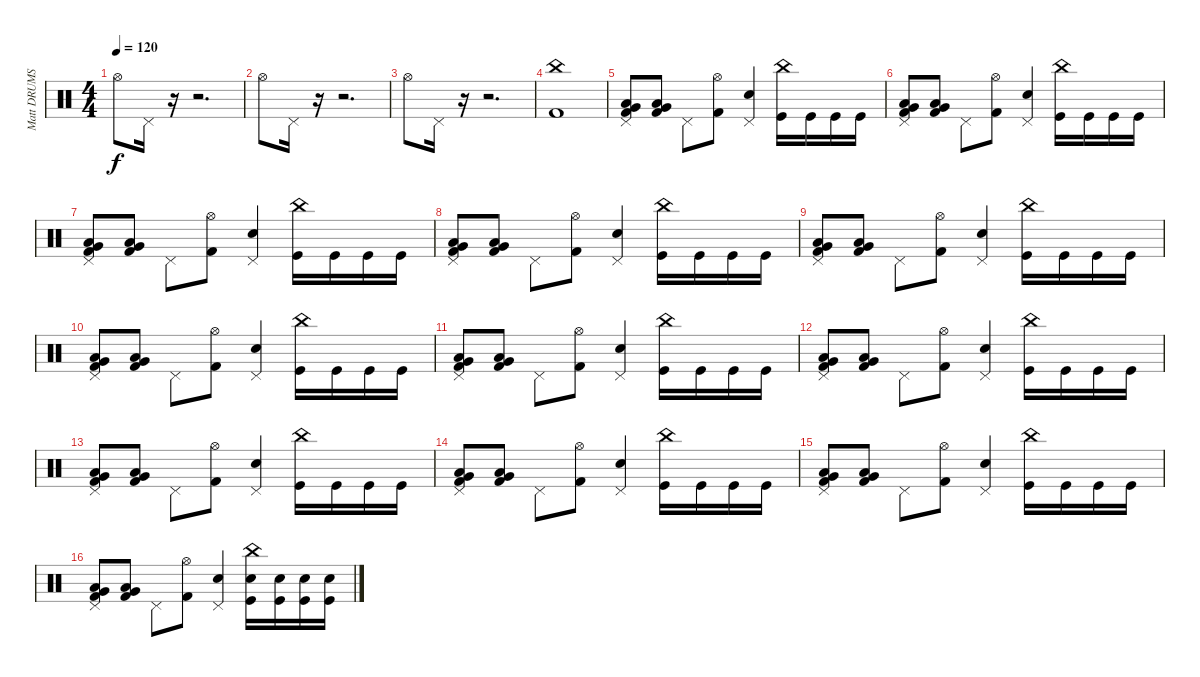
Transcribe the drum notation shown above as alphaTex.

\track ("Matt DRUMS" "Matt DRUMS") {instrument percussion}
\staff {score}
\articulation defaults
\ts (4 4)
\tempo 120
\clef neutral
\ks c "Hi-Hat (open)".8{dy f} "Pedal Hi-Hat (hit)".16
r.16 r.2{d} |
"Hi-Hat (open)".8 "Pedal Hi-Hat (hit)".16 r.16 r.2{d} |
"Hi-Hat (open)".8 "Pedal Hi-Hat (hit)".16 r.16 r.2{d} |
("China (hit)" "Kick (hit) 2").1 |
("Pedal Hi-Hat (hit)" "Low Tom (hit)" "Very Low Tom (hit)" "Kick (hit) 2").8 ("Low Tom (hit)" "Very Low Tom (hit)" "Kick (hit) 2").8 "Pedal Hi-Hat (hit)".8 ("Hi-Hat (open)" "Kick (hit) 2").8 ("Pedal Hi-Hat (hit)" "Snare (hit) 2").4 ("China (hit)" "Kick (hit)").16 "Kick (hit)".16 "Kick (hit)".16 "Kick (hit)".16 |
("Pedal Hi-Hat (hit)" "Low Tom (hit)" "Very Low Tom (hit)" "Kick (hit) 2").8 ("Low Tom (hit)" "Very Low Tom (hit)" "Kick (hit) 2").8 "Pedal Hi-Hat (hit)".8 ("Hi-Hat (open)" "Kick (hit) 2").8 ("Pedal Hi-Hat (hit)" "Snare (hit) 2").4 ("China (hit)" "Kick (hit)").16 "Kick (hit)".16 "Kick (hit)".16 "Kick (hit)".16 |
("Pedal Hi-Hat (hit)" "Low Tom (hit)" "Very Low Tom (hit)" "Kick (hit) 2").8 ("Low Tom (hit)" "Very Low Tom (hit)" "Kick (hit) 2").8 "Pedal Hi-Hat (hit)".8 ("Hi-Hat (open)" "Kick (hit) 2").8 ("Pedal Hi-Hat (hit)" "Snare (hit) 2").4 ("China (hit)" "Kick (hit)").16 "Kick (hit)".16 "Kick (hit)".16 "Kick (hit)".16 |
("Pedal Hi-Hat (hit)" "Low Tom (hit)" "Very Low Tom (hit)" "Kick (hit) 2").8 ("Low Tom (hit)" "Very Low Tom (hit)" "Kick (hit) 2").8 "Pedal Hi-Hat (hit)".8 ("Hi-Hat (open)" "Kick (hit) 2").8 ("Pedal Hi-Hat (hit)" "Snare (hit) 2").4 ("China (hit)" "Kick (hit)").16 "Kick (hit)".16 "Kick (hit)".16 "Kick (hit)".16 |
("Pedal Hi-Hat (hit)" "Low Tom (hit)" "Very Low Tom (hit)" "Kick (hit) 2").8 ("Low Tom (hit)" "Very Low Tom (hit)" "Kick (hit) 2").8 "Pedal Hi-Hat (hit)".8 ("Hi-Hat (open)" "Kick (hit) 2").8 ("Pedal Hi-Hat (hit)" "Snare (hit) 2").4 ("China (hit)" "Kick (hit)").16 "Kick (hit)".16 "Kick (hit)".16 "Kick (hit)".16 |
("Pedal Hi-Hat (hit)" "Low Tom (hit)" "Very Low Tom (hit)" "Kick (hit) 2").8 ("Low Tom (hit)" "Very Low Tom (hit)" "Kick (hit) 2").8 "Pedal Hi-Hat (hit)".8 ("Hi-Hat (open)" "Kick (hit) 2").8 ("Pedal Hi-Hat (hit)" "Snare (hit) 2").4 ("China (hit)" "Kick (hit)").16 "Kick (hit)".16 "Kick (hit)".16 "Kick (hit)".16 |
("Pedal Hi-Hat (hit)" "Low Tom (hit)" "Very Low Tom (hit)" "Kick (hit) 2").8 ("Low Tom (hit)" "Very Low Tom (hit)" "Kick (hit) 2").8 "Pedal Hi-Hat (hit)".8 ("Hi-Hat (open)" "Kick (hit) 2").8 ("Pedal Hi-Hat (hit)" "Snare (hit) 2").4 ("China (hit)" "Kick (hit)").16 "Kick (hit)".16 "Kick (hit)".16 "Kick (hit)".16 |
("Pedal Hi-Hat (hit)" "Low Tom (hit)" "Very Low Tom (hit)" "Kick (hit) 2").8 ("Low Tom (hit)" "Very Low Tom (hit)" "Kick (hit) 2").8 "Pedal Hi-Hat (hit)".8 ("Hi-Hat (open)" "Kick (hit) 2").8 ("Pedal Hi-Hat (hit)" "Snare (hit) 2").4 ("China (hit)" "Kick (hit)").16 "Kick (hit)".16 "Kick (hit)".16 "Kick (hit)".16 |
("Pedal Hi-Hat (hit)" "Low Tom (hit)" "Very Low Tom (hit)" "Kick (hit) 2").8 ("Low Tom (hit)" "Very Low Tom (hit)" "Kick (hit) 2").8 "Pedal Hi-Hat (hit)".8 ("Hi-Hat (open)" "Kick (hit) 2").8 ("Pedal Hi-Hat (hit)" "Snare (hit) 2").4 ("China (hit)" "Kick (hit)").16 "Kick (hit)".16 "Kick (hit)".16 "Kick (hit)".16 |
("Pedal Hi-Hat (hit)" "Low Tom (hit)" "Very Low Tom (hit)" "Kick (hit) 2").8 ("Low Tom (hit)" "Very Low Tom (hit)" "Kick (hit) 2").8 "Pedal Hi-Hat (hit)".8 ("Hi-Hat (open)" "Kick (hit) 2").8 ("Pedal Hi-Hat (hit)" "Snare (hit) 2").4 ("China (hit)" "Kick (hit)").16 "Kick (hit)".16 "Kick (hit)".16 "Kick (hit)".16 |
("Pedal Hi-Hat (hit)" "Low Tom (hit)" "Very Low Tom (hit)" "Kick (hit) 2").8 ("Low Tom (hit)" "Very Low Tom (hit)" "Kick (hit) 2").8 "Pedal Hi-Hat (hit)".8 ("Hi-Hat (open)" "Kick (hit) 2").8 ("Pedal Hi-Hat (hit)" "Snare (hit) 2").4 ("China (hit)" "Kick (hit)").16 "Kick (hit)".16 "Kick (hit)".16 "Kick (hit)".16 |
("Pedal Hi-Hat (hit)" "Low Tom (hit)" "Very Low Tom (hit)" "Kick (hit) 2").8 ("Low Tom (hit)" "Very Low Tom (hit)" "Kick (hit) 2").8 "Pedal Hi-Hat (hit)".8 ("Hi-Hat (open)" "Kick (hit) 2").8 ("Pedal Hi-Hat (hit)" "Snare (hit) 2").4 ("China (hit)" "Electric Snare (hit)" "Kick (hit)").16 ("Electric Snare (hit)" "Kick (hit)").16 ("Electric Snare (hit)" "Kick (hit)").16 ("Electric Snare (hit)" "Kick (hit)").16
